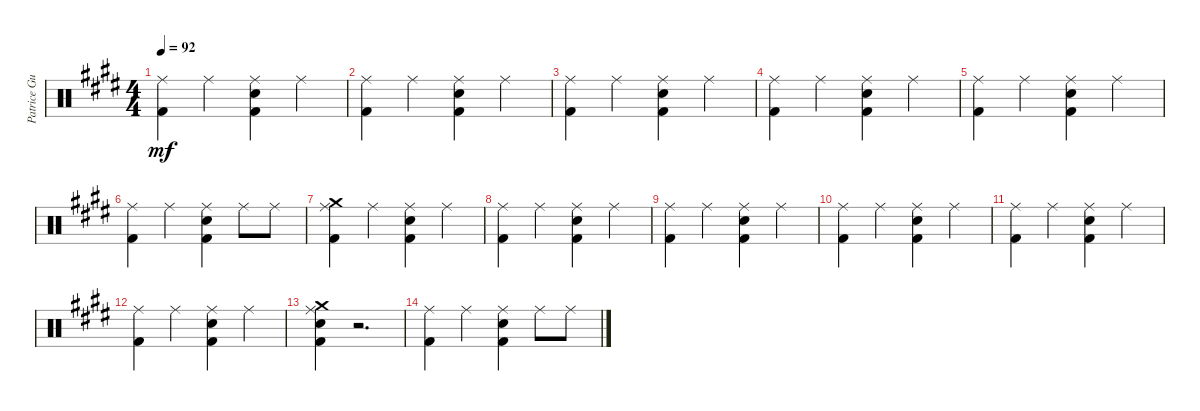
\track ("Patrice Guers" "Patrice Gu") {instrument percussion}
\staff {score}
\articulation defaults
\ts (4 4)
\tempo 92
\clef neutral
\ks c#minor
("Ride (middle)" "Kick (hit) 2").4{dy mf} "Ride (middle)".4 ("Ride (middle)" "Kick (hit) 2" "Snare (hit) 2").4 "Ride (middle)".4 |
("Ride (middle)" "Kick (hit) 2").4 "Ride (middle)".4 ("Ride (middle)" "Kick (hit) 2" "Snare (hit) 2").4 "Ride (middle)".4 |
("Ride (middle)" "Kick (hit) 2").4 "Ride (middle)".4 ("Ride (middle)" "Kick (hit) 2" "Snare (hit) 2").4 "Ride (middle)".4 |
("Ride (middle)" "Kick (hit) 2").4 "Ride (middle)".4 ("Ride (middle)" "Kick (hit) 2" "Snare (hit) 2").4 "Ride (middle)".4 |
("Ride (middle)" "Kick (hit) 2").4 "Ride (middle)".4 ("Ride (middle)" "Kick (hit) 2" "Snare (hit) 2").4 "Ride (middle)".4 |
("Ride (middle)" "Kick (hit) 2").4 "Ride (middle)".4 ("Ride (middle)" "Kick (hit) 2" "Snare (hit) 2").4 "Ride (middle)".8 "Ride (middle)".8 |
("Ride (middle)" "Kick (hit) 2" "Crash medium (hit)").4 "Ride (middle)".4 ("Ride (middle)" "Kick (hit) 2" "Snare (hit) 2").4 "Ride (middle)".4 |
("Ride (middle)" "Kick (hit) 2").4 "Ride (middle)".4 ("Ride (middle)" "Kick (hit) 2" "Snare (hit) 2").4 "Ride (middle)".4 |
("Ride (middle)" "Kick (hit) 2").4 "Ride (middle)".4 ("Ride (middle)" "Kick (hit) 2" "Snare (hit) 2").4 "Ride (middle)".4 |
("Ride (middle)" "Kick (hit) 2").4 "Ride (middle)".4 ("Ride (middle)" "Kick (hit) 2" "Snare (hit) 2").4 "Ride (middle)".4 |
("Ride (middle)" "Kick (hit) 2").4 "Ride (middle)".4 ("Ride (middle)" "Kick (hit) 2" "Snare (hit) 2").4 "Ride (middle)".4 |
("Ride (middle)" "Kick (hit) 2").4 "Ride (middle)".4 ("Ride (middle)" "Kick (hit) 2" "Snare (hit) 2").4 "Ride (middle)".4 |
("Ride (middle)" "Kick (hit) 2" "Snare (hit) 2" "Crash medium (hit)").4 r.2{d} |
("Ride (middle)" "Kick (hit) 2").4 "Ride (middle)".4 ("Ride (middle)" "Kick (hit) 2" "Snare (hit) 2").4 "Ride (middle)".8 "Ride (middle)".8
